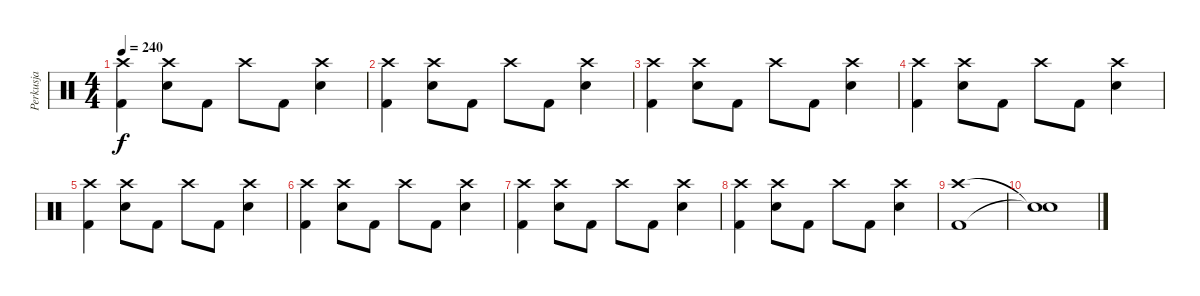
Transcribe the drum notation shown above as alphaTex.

\track ("Perkusja" "Perkusja") {instrument percussion}
\staff {score}
\articulation defaults
\ts (4 4)
\tempo 240
\clef neutral
\ks c
("Crash high (hit)" "Kick (hit) 2").4{dy f} ("Crash high (hit)" "Electric Snare (hit)").8 "Kick (hit) 2".8 "Crash high (hit)".8 "Kick (hit) 2".8 ("Crash high (hit)" "Electric Snare (hit)").4 |
("Crash high (hit)" "Kick (hit) 2").4 ("Crash high (hit)" "Electric Snare (hit)").8 "Kick (hit) 2".8 "Crash high (hit)".8 "Kick (hit) 2".8 ("Crash high (hit)" "Electric Snare (hit)").4 |
("Crash high (hit)" "Kick (hit) 2").4 ("Crash high (hit)" "Electric Snare (hit)").8 "Kick (hit) 2".8 "Crash high (hit)".8 "Kick (hit) 2".8 ("Crash high (hit)" "Electric Snare (hit)").4 |
("Crash high (hit)" "Kick (hit) 2").4 ("Crash high (hit)" "Electric Snare (hit)").8 "Kick (hit) 2".8 "Crash high (hit)".8 "Kick (hit) 2".8 ("Crash high (hit)" "Electric Snare (hit)").4 |
("Crash high (hit)" "Kick (hit) 2").4 ("Crash high (hit)" "Electric Snare (hit)").8 "Kick (hit) 2".8 "Crash high (hit)".8 "Kick (hit) 2".8 ("Crash high (hit)" "Electric Snare (hit)").4 |
("Crash high (hit)" "Kick (hit) 2").4 ("Crash high (hit)" "Electric Snare (hit)").8 "Kick (hit) 2".8 "Crash high (hit)".8 "Kick (hit) 2".8 ("Crash high (hit)" "Electric Snare (hit)").4 |
("Crash high (hit)" "Kick (hit) 2").4 ("Crash high (hit)" "Electric Snare (hit)").8 "Kick (hit) 2".8 "Crash high (hit)".8 "Kick (hit) 2".8 ("Crash high (hit)" "Electric Snare (hit)").4 |
("Crash high (hit)" "Kick (hit) 2").4 ("Crash high (hit)" "Electric Snare (hit)").8 "Kick (hit) 2".8 "Crash high (hit)".8 "Kick (hit) 2".8 ("Crash high (hit)" "Electric Snare (hit)").4 |
("Crash high (hit)" "Kick (hit) 2").1 |
("Snare (hit)"{t} "Snare (hit)"{t}).1
